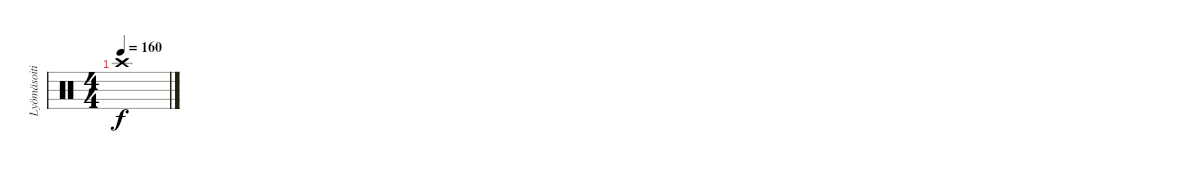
\track ("Lyömäsoitin" "Lyömäsoiti") {instrument percussion}
\staff {score}
\articulation defaults
\ts (4 4)
\tempo 160
\clef neutral
\ks c "Crash high (hit)".1{dy f}
